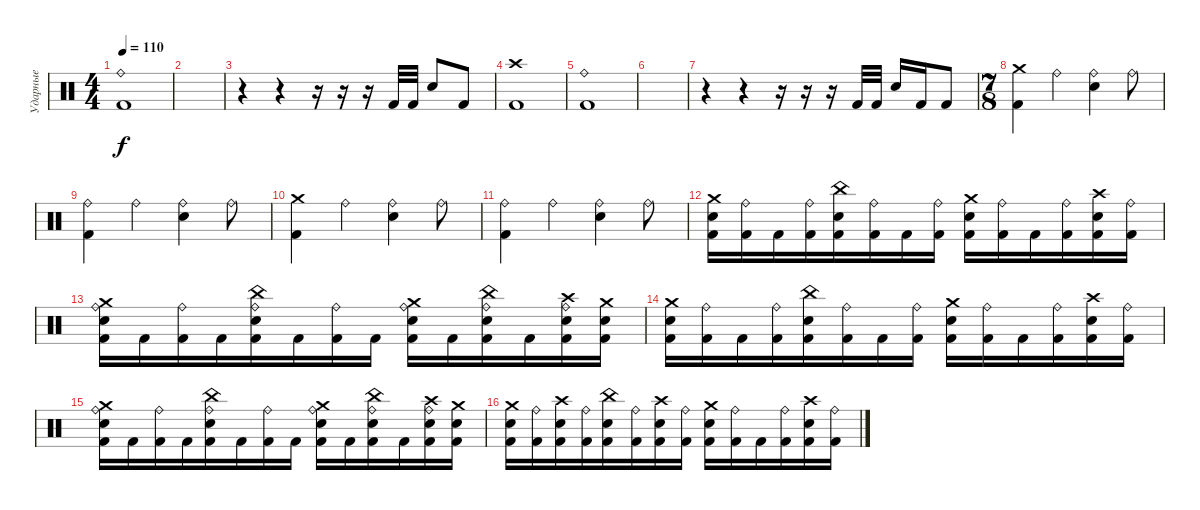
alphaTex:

\track ("Ударные" "Ударные") {instrument percussion}
\staff {score}
\articulation defaults
\ts (4 4)
\tempo 110
\clef neutral
\ks c
("Ride (bell)" "Kick (hit) 2").1{dy f} |
|
r.4 r.4 r.16 r.16 r.16 "Kick (hit) 2".32 "Kick (hit) 2".32 "Electric Snare (hit)".8 "Kick (hit) 2".8 |
("Crash high (hit)" "Kick (hit) 2").1 |
("Ride (bell)" "Kick (hit) 2").1 |
|
r.4 r.4 r.16 r.16 r.16 "Kick (hit) 2".32 "Kick (hit) 2".32 "Electric Snare (hit)".16 "Kick (hit) 2".16 "Kick (hit) 2".8 |
\ts (7 8)
("Kick (hit) 2" "Crash medium (hit)").4 "Ride (bell)".4 ("Electric Snare (hit)" "Ride (bell)").4 "Ride (bell)".8 |
("Kick (hit) 2" "Ride (bell)").4 "Ride (bell)".4 ("Electric Snare (hit)" "Ride (bell)").4 "Ride (bell)".8 |
("Kick (hit) 2" "Crash medium (hit)").4 "Ride (bell)".4 ("Electric Snare (hit)" "Ride (bell)").4 "Ride (bell)".8 |
("Kick (hit) 2" "Ride (bell)").4 "Ride (bell)".4 ("Electric Snare (hit)" "Ride (bell)").4 "Ride (bell)".8 |
("Electric Snare (hit)" "Crash medium (hit)" "Kick (hit) 2").16 ("Kick (hit) 2" "Ride (bell)").16 "Kick (hit) 2".16 ("Kick (hit) 2" "Ride (bell)").16 ("China (hit)" "Electric Snare (hit)" "Kick (hit) 2").16 ("Kick (hit) 2" "Ride (bell)").16 "Kick (hit) 2".16 ("Kick (hit) 2" "Ride (bell)").16 ("Crash medium (hit)" "Electric Snare (hit)" "Kick (hit) 2").16 ("Kick (hit) 2" "Ride (bell)").16 "Kick (hit) 2".16 ("Kick (hit) 2" "Ride (bell)").16 ("Crash high (hit)" "Electric Snare (hit)" "Kick (hit) 2").16 ("Kick (hit) 2" "Ride (bell)").16 |
("Electric Snare (hit)" "Crash medium (hit)" "Kick (hit) 2" "Ride (bell)").16 "Kick (hit) 2".16 ("Kick (hit) 2" "Ride (bell)").16 "Kick (hit) 2".16 ("China (hit)" "Electric Snare (hit)" "Kick (hit) 2" "Ride (bell)").16 "Kick (hit) 2".16 ("Kick (hit) 2" "Ride (bell)").16 "Kick (hit) 2".16 ("Crash medium (hit)" "Electric Snare (hit)" "Kick (hit) 2" "Ride (bell)").16 "Kick (hit) 2".16 ("China (hit)" "Electric Snare (hit)" "Kick (hit) 2" "Ride (bell)").16 "Kick (hit) 2".16 ("Crash high (hit)" "Electric Snare (hit)" "Kick (hit) 2" "Ride (bell)").16 ("Crash medium (hit)" "Electric Snare (hit)" "Kick (hit) 2").16 |
("Electric Snare (hit)" "Crash medium (hit)" "Kick (hit) 2").16 ("Kick (hit) 2" "Ride (bell)").16 "Kick (hit) 2".16 ("Kick (hit) 2" "Ride (bell)").16 ("China (hit)" "Electric Snare (hit)" "Kick (hit) 2").16 ("Kick (hit) 2" "Ride (bell)").16 "Kick (hit) 2".16 ("Kick (hit) 2" "Ride (bell)").16 ("Crash medium (hit)" "Electric Snare (hit)" "Kick (hit) 2").16 ("Kick (hit) 2" "Ride (bell)").16 "Kick (hit) 2".16 ("Kick (hit) 2" "Ride (bell)").16 ("Crash high (hit)" "Electric Snare (hit)" "Kick (hit) 2").16 ("Kick (hit) 2" "Ride (bell)").16 |
("Electric Snare (hit)" "Crash medium (hit)" "Kick (hit) 2" "Ride (bell)").16 "Kick (hit) 2".16 ("Kick (hit) 2" "Ride (bell)").16 "Kick (hit) 2".16 ("China (hit)" "Electric Snare (hit)" "Kick (hit) 2" "Ride (bell)").16 "Kick (hit) 2".16 ("Kick (hit) 2" "Ride (bell)").16 "Kick (hit) 2".16 ("Crash medium (hit)" "Electric Snare (hit)" "Kick (hit) 2" "Ride (bell)").16 "Kick (hit) 2".16 ("China (hit)" "Electric Snare (hit)" "Kick (hit) 2" "Ride (bell)").16 "Kick (hit) 2".16 ("Crash high (hit)" "Electric Snare (hit)" "Kick (hit) 2" "Ride (bell)").16 ("Crash medium (hit)" "Electric Snare (hit)" "Kick (hit) 2").16 |
("Electric Snare (hit)" "Crash medium (hit)" "Kick (hit) 2").16 ("Kick (hit) 2" "Ride (bell)").16 ("Electric Snare (hit)" "Crash high (hit)" "Kick (hit) 2").16 ("Kick (hit) 2" "Ride (bell)").16 ("China (hit)" "Electric Snare (hit)" "Kick (hit) 2").16 ("Kick (hit) 2" "Ride (bell)").16 ("Electric Snare (hit)" "Crash high (hit)" "Kick (hit) 2").16 ("Kick (hit) 2" "Ride (bell)").16 ("Crash medium (hit)" "Electric Snare (hit)" "Kick (hit) 2").16 ("Kick (hit) 2" "Ride (bell)").16 "Kick (hit) 2".16 ("Kick (hit) 2" "Ride (bell)").16 ("Crash high (hit)" "Electric Snare (hit)" "Kick (hit) 2").16 ("Kick (hit) 2" "Ride (bell)").16
